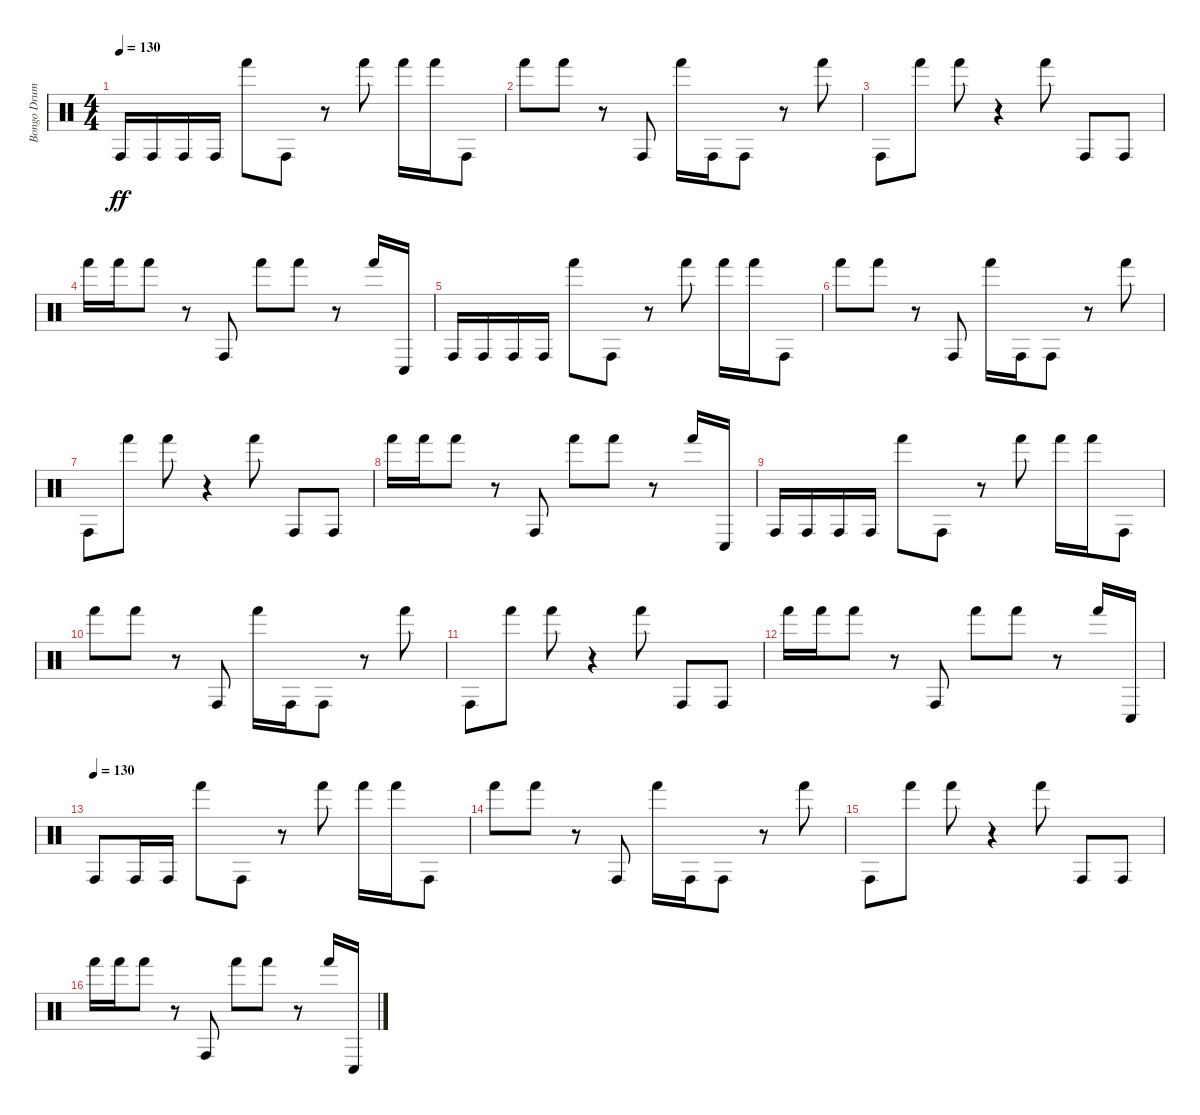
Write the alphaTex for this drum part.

\track ("Bongo Drums" "Bongo Drum") {instrument percussion}
\staff {score}
\articulation defaults
\ts (4 4)
\tempo 130
\clef neutral
\ks c "Conga high (hit)".16{dy ff} "Conga high (hit)".16 "Conga high (hit)".16 "Conga high (hit)".16 "Hand (hit)".8 "Conga high (hit)".8
r.8 "Hand (hit)".8 "Hand (hit)".16 "Hand (hit)".16 "Conga high (hit)".8 |
"Hand (hit)".8 "Hand (hit)".8 r.8 "Conga high (hit)".8 "Hand (hit)".16 "Conga high (hit)".16 "Conga high (hit)".8 r.8 "Hand (hit)".8 |
"Conga high (hit)".8 "Hand (hit)".8 "Hand (hit)".8 r.4 "Hand (hit)".8 "Conga high (hit)".8 "Conga high (hit)".8 |
"Hand (hit)".16 "Hand (hit)".16 "Hand (hit)".8 r.8 "Conga high (hit)".8 "Hand (hit)".8 "Hand (hit)".8 r.8 "Hand (hit)".16 "Conga low (hit)".16 |
"Conga high (hit)".16 "Conga high (hit)".16 "Conga high (hit)".16 "Conga high (hit)".16 "Hand (hit)".8 "Conga high (hit)".8 r.8 "Hand (hit)".8 "Hand (hit)".16 "Hand (hit)".16 "Conga high (hit)".8 |
"Hand (hit)".8 "Hand (hit)".8 r.8 "Conga high (hit)".8 "Hand (hit)".16 "Conga high (hit)".16 "Conga high (hit)".8 r.8 "Hand (hit)".8 |
"Conga high (hit)".8 "Hand (hit)".8 "Hand (hit)".8 r.4 "Hand (hit)".8 "Conga high (hit)".8 "Conga high (hit)".8 |
"Hand (hit)".16 "Hand (hit)".16 "Hand (hit)".8 r.8 "Conga high (hit)".8 "Hand (hit)".8 "Hand (hit)".8 r.8 "Hand (hit)".16 "Conga low (hit)".16 |
"Conga high (hit)".16 "Conga high (hit)".16 "Conga high (hit)".16 "Conga high (hit)".16 "Hand (hit)".8 "Conga high (hit)".8 r.8 "Hand (hit)".8 "Hand (hit)".16 "Hand (hit)".16 "Conga high (hit)".8 |
"Hand (hit)".8 "Hand (hit)".8 r.8 "Conga high (hit)".8 "Hand (hit)".16 "Conga high (hit)".16 "Conga high (hit)".8 r.8 "Hand (hit)".8 |
"Conga high (hit)".8 "Hand (hit)".8 "Hand (hit)".8 r.4 "Hand (hit)".8 "Conga high (hit)".8 "Conga high (hit)".8 |
"Hand (hit)".16 "Hand (hit)".16 "Hand (hit)".8 r.8 "Conga high (hit)".8 "Hand (hit)".8 "Hand (hit)".8 r.8 "Hand (hit)".16 "Conga low (hit)".16 |
\tempo (130)
"Conga high (hit)".8 "Conga high (hit)".16 "Conga high (hit)".16 "Hand (hit)".8 "Conga high (hit)".8 r.8 "Hand (hit)".8 "Hand (hit)".16 "Hand (hit)".16 "Conga high (hit)".8 |
"Hand (hit)".8 "Hand (hit)".8 r.8 "Conga high (hit)".8 "Hand (hit)".16 "Conga high (hit)".16 "Conga high (hit)".8 r.8 "Hand (hit)".8 |
"Conga high (hit)".8 "Hand (hit)".8 "Hand (hit)".8 r.4 "Hand (hit)".8 "Conga high (hit)".8 "Conga high (hit)".8 |
"Hand (hit)".16 "Hand (hit)".16 "Hand (hit)".8 r.8 "Conga high (hit)".8 "Hand (hit)".8 "Hand (hit)".8 r.8 "Hand (hit)".16 "Conga low (hit)".16
